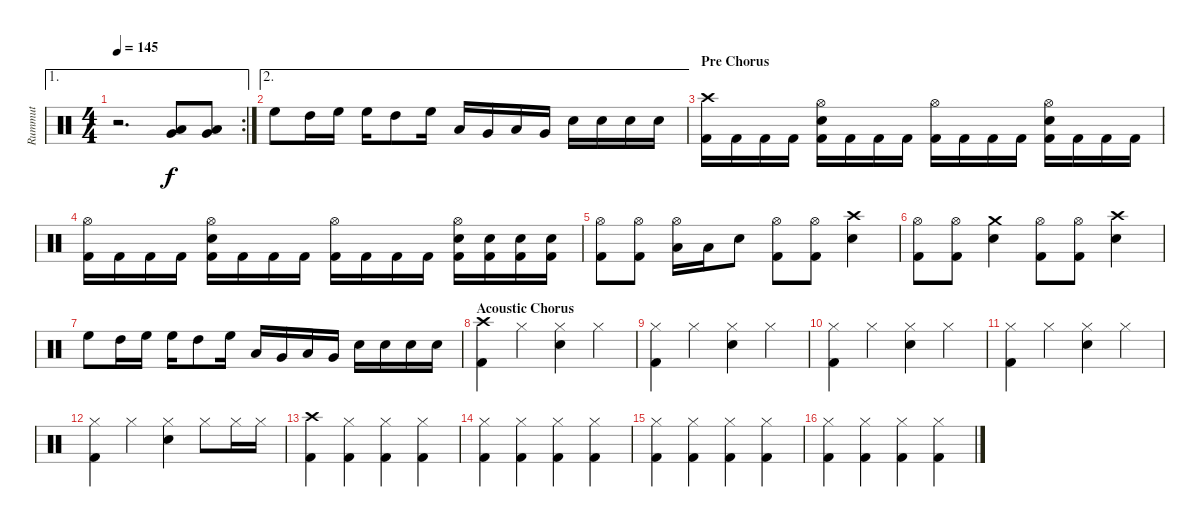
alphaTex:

\track ("Rummut" "Rummut") {instrument percussion}
\staff {score}
\articulation defaults
\ae 1
\rc 2
\ts (4 4)
\tempo 145
\clef neutral
\ks c
r.2{d dy f} ("Very Low Tom (hit)" "Low Floor Tom (hit)").8 ("Very Low Tom (hit)" "Low Floor Tom (hit)").8 |
\ae 2 "High Floor Tom (hit)".8 "High Tom (hit)".16 "High Floor Tom (hit)".16 "High Floor Tom (hit)".16 "High Tom (hit)".8 "High Floor Tom (hit)".16 "Low Floor Tom (hit)".16 "Very Low Tom (hit)".16 "Low Floor Tom (hit)".16 "Very Low Tom (hit)".16 "Electric Snare (hit)".16 "Electric Snare (hit)".16 "Electric Snare (hit)".16 "Electric Snare (hit)".16
|
\section ("" "Pre Chorus")
("Kick (hit) 2" "Crash high (hit)").16 "Kick (hit) 2".16 "Kick (hit) 2".16 "Kick (hit) 2".16 ("Kick (hit) 2" "Electric Snare (hit)" "Hi-Hat (open)").16 "Kick (hit) 2".16 "Kick (hit) 2".16 "Kick (hit) 2".16 ("Kick (hit) 2" "Hi-Hat (open)").16 "Kick (hit) 2".16 "Kick (hit) 2".16 "Kick (hit) 2".16 ("Kick (hit) 2" "Electric Snare (hit)" "Hi-Hat (open)").16 "Kick (hit) 2".16 "Kick (hit) 2".16 "Kick (hit) 2".16 |
("Kick (hit) 2" "Hi-Hat (open)").16 "Kick (hit) 2".16 "Kick (hit) 2".16 "Kick (hit) 2".16 ("Kick (hit) 2" "Electric Snare (hit)" "Hi-Hat (open)").16 "Kick (hit) 2".16 "Kick (hit) 2".16 "Kick (hit) 2".16 ("Kick (hit) 2" "Hi-Hat (open)").16 "Kick (hit) 2".16 "Kick (hit) 2".16 "Kick (hit) 2".16 ("Kick (hit) 2" "Electric Snare (hit)" "Hi-Hat (open)").16 ("Kick (hit) 2" "Electric Snare (hit)").16 ("Kick (hit) 2" "Electric Snare (hit)").16 ("Kick (hit) 2" "Electric Snare (hit)").16 |
("Hi-Hat (open)" "Kick (hit) 2").8 ("Hi-Hat (open)" "Kick (hit) 2").8 ("Hi-Hat (open)" "Low Floor Tom (hit)").16 "Low Floor Tom (hit)".16 "Electric Snare (hit)".8 ("Hi-Hat (open)" "Kick (hit) 2").8 ("Hi-Hat (open)" "Kick (hit) 2").8 ("Crash high (hit)" "Electric Snare (hit)").4 |
("Hi-Hat (open)" "Kick (hit) 2").8 ("Hi-Hat (open)" "Kick (hit) 2").8 ("Crash medium (hit)" "Electric Snare (hit)").4 ("Hi-Hat (open)" "Kick (hit) 2").8 ("Hi-Hat (open)" "Kick (hit) 2").8 ("Crash high (hit)" "Electric Snare (hit)").4 |
"High Floor Tom (hit)".8 "High Tom (hit)".16 "High Floor Tom (hit)".16 "High Floor Tom (hit)".16 "High Tom (hit)".8 "High Floor Tom (hit)".16 "Low Floor Tom (hit)".16 "Very Low Tom (hit)".16 "Low Floor Tom (hit)".16 "Very Low Tom (hit)".16 "Electric Snare (hit)".16 "Electric Snare (hit)".16 "Electric Snare (hit)".16 "Electric Snare (hit)".16 |
\section ("" "Acoustic Chorus")
("Crash high (hit)" "Kick (hit) 2").4 "Hi-Hat (closed)".4 ("Hi-Hat (closed)" "Electric Snare (hit)").4 "Hi-Hat (closed)".4 |
("Hi-Hat (closed)" "Kick (hit) 2").4 "Hi-Hat (closed)".4 ("Hi-Hat (closed)" "Electric Snare (hit)").4 "Hi-Hat (closed)".4 |
("Hi-Hat (closed)" "Kick (hit) 2").4 "Hi-Hat (closed)".4 ("Hi-Hat (closed)" "Electric Snare (hit)").4 "Hi-Hat (closed)".4 |
("Hi-Hat (closed)" "Kick (hit) 2").4 "Hi-Hat (closed)".4 ("Hi-Hat (closed)" "Electric Snare (hit)").4 "Hi-Hat (closed)".4 |
("Hi-Hat (closed)" "Kick (hit) 2").4 "Hi-Hat (closed)".4 ("Hi-Hat (closed)" "Electric Snare (hit)").4 "Hi-Hat (closed)".8 "Hi-Hat (closed)".16 "Hi-Hat (closed)".16 |
("Crash high (hit)" "Kick (hit) 2").4 ("Hi-Hat (closed)" "Kick (hit) 2").4 ("Hi-Hat (closed)" "Kick (hit) 2").4 ("Hi-Hat (closed)" "Kick (hit) 2").4 |
("Hi-Hat (closed)" "Kick (hit) 2").4 ("Hi-Hat (closed)" "Kick (hit) 2").4 ("Hi-Hat (closed)" "Kick (hit) 2").4 ("Hi-Hat (closed)" "Kick (hit) 2").4 |
("Hi-Hat (closed)" "Kick (hit) 2").4 ("Hi-Hat (closed)" "Kick (hit) 2").4 ("Hi-Hat (closed)" "Kick (hit) 2").4 ("Hi-Hat (closed)" "Kick (hit) 2").4 |
("Hi-Hat (closed)" "Kick (hit) 2").4 ("Hi-Hat (closed)" "Kick (hit) 2").4 ("Hi-Hat (closed)" "Kick (hit) 2").4 ("Hi-Hat (closed)" "Kick (hit) 2").4
